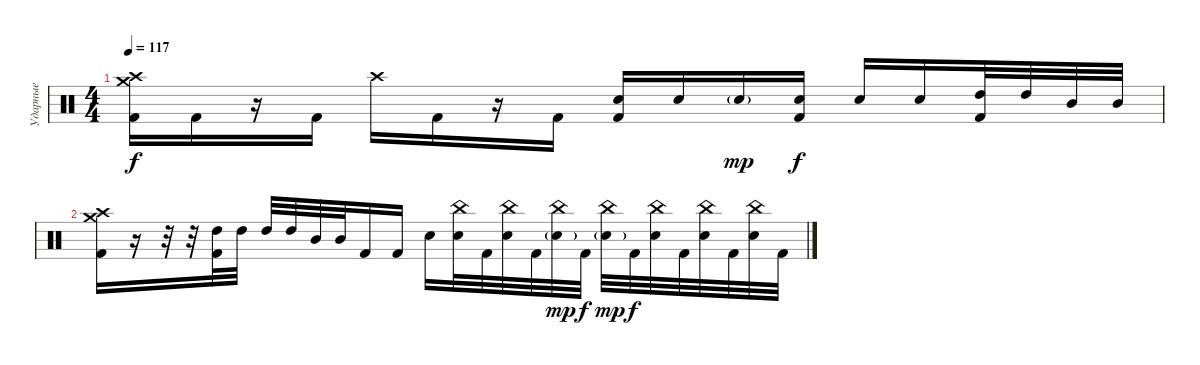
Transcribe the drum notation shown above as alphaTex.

\track ("Ударные" "Ударные") {instrument percussion}
\staff {score}
\articulation defaults
\ts (4 4)
\tempo 117
\clef neutral
\ks c
("Crash medium (hit)" "Crash high (hit)" "Kick (hit) 2").16{dy f} "Kick (hit) 2".16 r.16 "Kick (hit) 2".16 "Crash high (hit)".16 "Kick (hit) 2".16 r.16 "Kick (hit) 2".16 ("Electric Snare (hit)" "Kick (hit) 2").16 "Electric Snare (hit)".16 "Electric Snare (hit)"{g}.16{dy mp} ("Electric Snare (hit)" "Kick (hit) 2").16{dy f} "Electric Snare (hit)".16 "Electric Snare (hit)".16 ("High Tom (hit)" "Kick (hit) 2").32 "High Tom (hit)".32 "Mid Tom (hit)".32 "Mid Tom (hit)".32 |
("Crash medium (hit)" "Crash high (hit)" "Kick (hit) 2").16 r.16 r.32 r.32 ("High Tom (hit)" "Kick (hit) 2").32 "High Tom (hit)".32 "High Tom (hit)".32 "High Tom (hit)".32 "Mid Tom (hit)".32 "Mid Tom (hit)".32 "Kick (hit) 2".16 "Kick (hit) 2".16 "Electric Snare (hit)".16 ("China (hit)" "Electric Snare (hit)").32 "Kick (hit) 2".32 ("China (hit)" "Electric Snare (hit)").32 "Kick (hit) 2".32 ("China (hit)" "Electric Snare (hit)"{g}).32{dy mp} "Kick (hit) 2".32{dy f} ("China (hit)" "Electric Snare (hit)"{g}).32{dy mp} "Kick (hit) 2".32{dy f} ("China (hit)" "Electric Snare (hit)").32 "Kick (hit) 2".32 ("China (hit)" "Electric Snare (hit)").32 "Kick (hit) 2".32 ("China (hit)" "Electric Snare (hit)").32 "Kick (hit) 2".32
